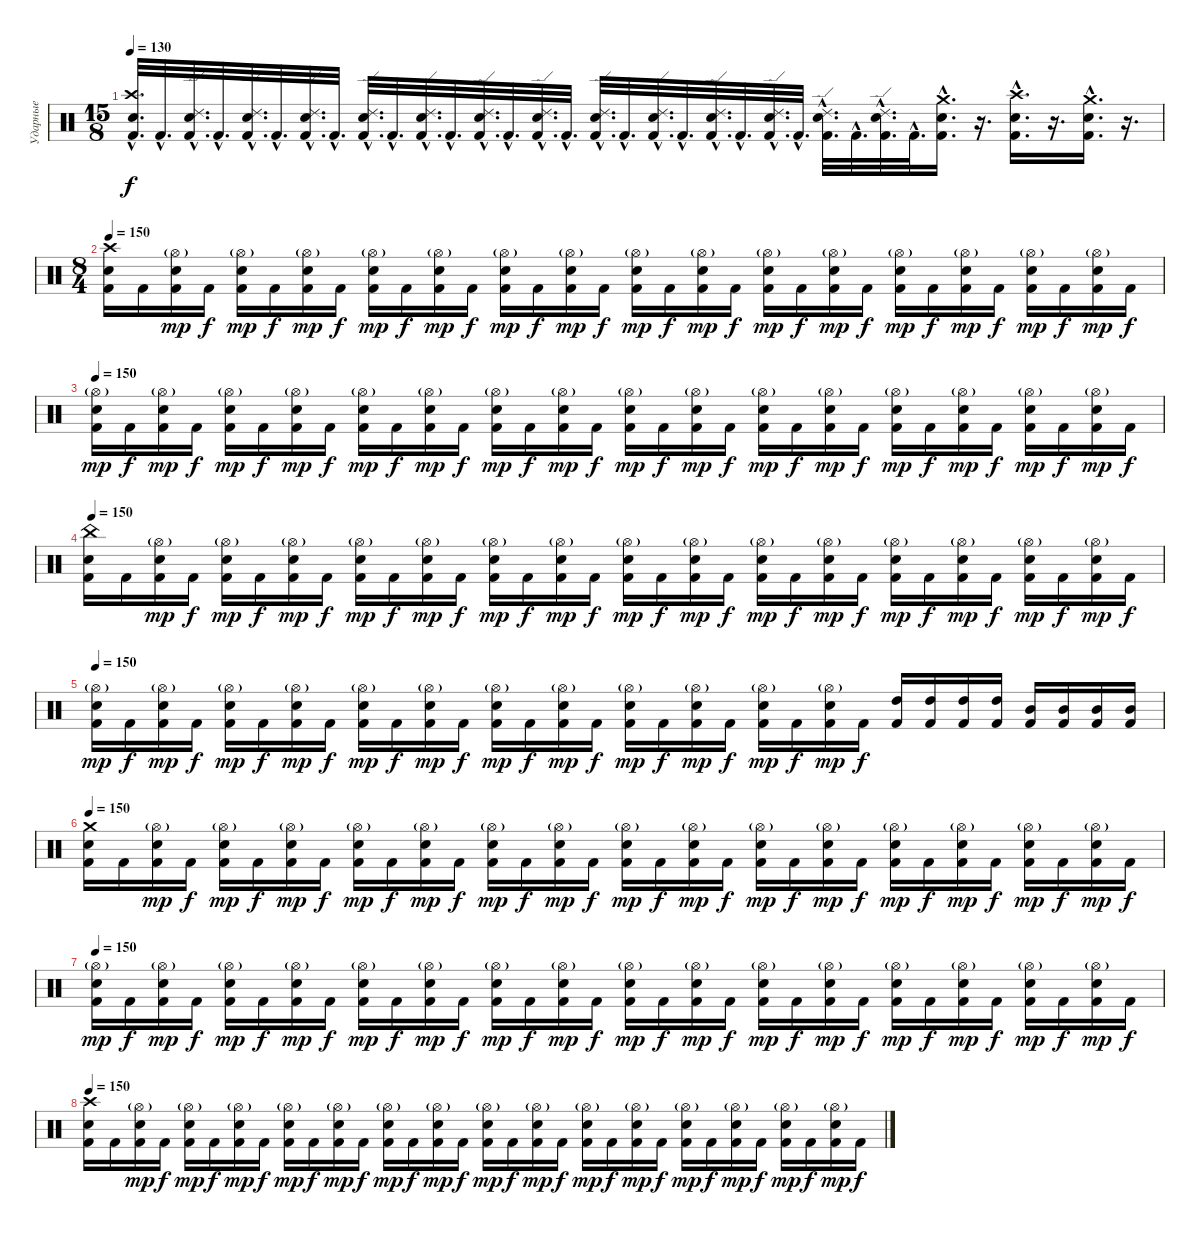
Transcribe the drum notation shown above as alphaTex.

\track ("Ударные" "Ударные") {instrument percussion}
\staff {score}
\articulation defaults
\ts (15 8)
\tempo 130
\clef neutral
\ks c
("Electric Snare (hit)"{hac} "Crash high (hit)"{hac} "Kick (hit) 2"{hac}).32{d dy f} "Kick (hit) 2"{hac}.32{d} ("Electric Snare (hit)"{hac} "Ride (edge) 2"{hac} "Kick (hit) 2"{hac}).32{d} "Kick (hit) 2"{hac}.32{d} ("Electric Snare (hit)"{hac} "Ride (edge) 2"{hac} "Kick (hit) 2"{hac}).32{d} "Kick (hit) 2"{hac}.32{d} ("Electric Snare (hit)"{hac} "Ride (edge) 2"{hac} "Kick (hit) 2"{hac}).32{d} "Kick (hit) 2"{hac}.32{d} ("Electric Snare (hit)"{hac} "Ride (edge) 2"{hac} "Kick (hit) 2"{hac}).32{d} "Kick (hit) 2"{hac}.32{d} ("Electric Snare (hit)"{hac} "Ride (edge) 2"{hac} "Kick (hit) 2"{hac}).32{d} "Kick (hit) 2"{hac}.32{d} ("Electric Snare (hit)"{hac} "Ride (edge) 2"{hac} "Kick (hit) 2"{hac}).32{d} "Kick (hit) 2"{hac}.32{d} ("Electric Snare (hit)"{hac} "Ride (edge) 2"{hac} "Kick (hit) 2"{hac}).32{d} "Kick (hit) 2"{hac}.32{d} ("Electric Snare (hit)"{hac} "Ride (edge) 2"{hac} "Kick (hit) 2"{hac}).32{d} "Kick (hit) 2"{hac}.32{d} ("Electric Snare (hit)"{hac} "Ride (edge) 2"{hac} "Kick (hit) 2"{hac}).32{d} "Kick (hit) 2"{hac}.32{d} ("Electric Snare (hit)"{hac} "Ride (edge) 2"{hac} "Kick (hit) 2"{hac}).32{d} "Kick (hit) 2"{hac}.32{d} ("Electric Snare (hit)"{hac} "Ride (edge) 2"{hac} "Kick (hit) 2"{hac}).32{d} "Kick (hit) 2"{hac}.32{d} ("Electric Snare (hit)"{hac} "Ride (edge) 2"{hac} "Kick (hit) 2"{hac}).32{d} "Kick (hit) 2"{hac}.32{d} ("Electric Snare (hit)"{hac} "Ride (edge) 2"{hac} "Kick (hit) 2"{hac}).32{d} "Kick (hit) 2"{hac}.32{d} ("Electric Snare (hit)"{hac} "Crash medium (hit)"{hac} "Kick (hit) 2"{hac}).16{d} r.16{d} ("Electric Snare (hit)"{hac} "Crash high (hit)"{hac} "Kick (hit) 2"{hac}).16{d} r.16{d} ("Electric Snare (hit)"{hac} "Crash medium (hit)"{hac} "Kick (hit) 2"{hac}).16{d} r.16{d} |
\ts (8 4)
\tempo 150
("Crash high (hit)" "Electric Snare (hit)" "Kick (hit) 2").16 "Kick (hit) 2".16 ("Hi-Hat (open)"{g} "Electric Snare (hit)" "Kick (hit) 2").16{dy mp} "Kick (hit) 2".16{dy f} ("Hi-Hat (open)"{g} "Electric Snare (hit)" "Kick (hit) 2").16{dy mp} "Kick (hit) 2".16{dy f} ("Hi-Hat (open)"{g} "Electric Snare (hit)" "Kick (hit) 2").16{dy mp} "Kick (hit) 2".16{dy f} ("Hi-Hat (open)"{g} "Electric Snare (hit)" "Kick (hit) 2").16{dy mp} "Kick (hit) 2".16{dy f} ("Hi-Hat (open)"{g} "Electric Snare (hit)" "Kick (hit) 2").16{dy mp} "Kick (hit) 2".16{dy f} ("Hi-Hat (open)"{g} "Electric Snare (hit)" "Kick (hit) 2").16{dy mp} "Kick (hit) 2".16{dy f} ("Hi-Hat (open)"{g} "Electric Snare (hit)" "Kick (hit) 2").16{dy mp} "Kick (hit) 2".16{dy f} ("Hi-Hat (open)"{g} "Electric Snare (hit)" "Kick (hit) 2").16{dy mp} "Kick (hit) 2".16{dy f} ("Hi-Hat (open)"{g} "Electric Snare (hit)" "Kick (hit) 2").16{dy mp} "Kick (hit) 2".16{dy f} ("Hi-Hat (open)"{g} "Electric Snare (hit)" "Kick (hit) 2").16{dy mp} "Kick (hit) 2".16{dy f} ("Hi-Hat (open)"{g} "Electric Snare (hit)" "Kick (hit) 2").16{dy mp} "Kick (hit) 2".16{dy f} ("Hi-Hat (open)"{g} "Electric Snare (hit)" "Kick (hit) 2").16{dy mp} "Kick (hit) 2".16{dy f} ("Hi-Hat (open)"{g} "Electric Snare (hit)" "Kick (hit) 2").16{dy mp} "Kick (hit) 2".16{dy f} ("Hi-Hat (open)"{g} "Electric Snare (hit)" "Kick (hit) 2").16{dy mp} "Kick (hit) 2".16{dy f} ("Hi-Hat (open)"{g} "Electric Snare (hit)" "Kick (hit) 2").16{dy mp} "Kick (hit) 2".16{dy f} |
\tempo 150
("Hi-Hat (open)"{g} "Electric Snare (hit)" "Kick (hit) 2").16{dy mp} "Kick (hit) 2".16{dy f} ("Hi-Hat (open)"{g} "Electric Snare (hit)" "Kick (hit) 2").16{dy mp} "Kick (hit) 2".16{dy f} ("Hi-Hat (open)"{g} "Electric Snare (hit)" "Kick (hit) 2").16{dy mp} "Kick (hit) 2".16{dy f} ("Hi-Hat (open)"{g} "Electric Snare (hit)" "Kick (hit) 2").16{dy mp} "Kick (hit) 2".16{dy f} ("Hi-Hat (open)"{g} "Electric Snare (hit)" "Kick (hit) 2").16{dy mp} "Kick (hit) 2".16{dy f} ("Hi-Hat (open)"{g} "Electric Snare (hit)" "Kick (hit) 2").16{dy mp} "Kick (hit) 2".16{dy f} ("Hi-Hat (open)"{g} "Electric Snare (hit)" "Kick (hit) 2").16{dy mp} "Kick (hit) 2".16{dy f} ("Hi-Hat (open)"{g} "Electric Snare (hit)" "Kick (hit) 2").16{dy mp} "Kick (hit) 2".16{dy f} ("Hi-Hat (open)"{g} "Electric Snare (hit)" "Kick (hit) 2").16{dy mp} "Kick (hit) 2".16{dy f} ("Hi-Hat (open)"{g} "Electric Snare (hit)" "Kick (hit) 2").16{dy mp} "Kick (hit) 2".16{dy f} ("Hi-Hat (open)"{g} "Electric Snare (hit)" "Kick (hit) 2").16{dy mp} "Kick (hit) 2".16{dy f} ("Hi-Hat (open)"{g} "Electric Snare (hit)" "Kick (hit) 2").16{dy mp} "Kick (hit) 2".16{dy f} ("Hi-Hat (open)"{g} "Electric Snare (hit)" "Kick (hit) 2").16{dy mp} "Kick (hit) 2".16{dy f} ("Hi-Hat (open)"{g} "Electric Snare (hit)" "Kick (hit) 2").16{dy mp} "Kick (hit) 2".16{dy f} ("Hi-Hat (open)"{g} "Electric Snare (hit)" "Kick (hit) 2").16{dy mp} "Kick (hit) 2".16{dy f} ("Hi-Hat (open)"{g} "Electric Snare (hit)" "Kick (hit) 2").16{dy mp} "Kick (hit) 2".16{dy f} |
\tempo 150
("China (hit)" "Electric Snare (hit)" "Kick (hit) 2").16 "Kick (hit) 2".16 ("Hi-Hat (open)"{g} "Electric Snare (hit)" "Kick (hit) 2").16{dy mp} "Kick (hit) 2".16{dy f} ("Hi-Hat (open)"{g} "Electric Snare (hit)" "Kick (hit) 2").16{dy mp} "Kick (hit) 2".16{dy f} ("Hi-Hat (open)"{g} "Electric Snare (hit)" "Kick (hit) 2").16{dy mp} "Kick (hit) 2".16{dy f} ("Hi-Hat (open)"{g} "Electric Snare (hit)" "Kick (hit) 2").16{dy mp} "Kick (hit) 2".16{dy f} ("Hi-Hat (open)"{g} "Electric Snare (hit)" "Kick (hit) 2").16{dy mp} "Kick (hit) 2".16{dy f} ("Hi-Hat (open)"{g} "Electric Snare (hit)" "Kick (hit) 2").16{dy mp} "Kick (hit) 2".16{dy f} ("Hi-Hat (open)"{g} "Electric Snare (hit)" "Kick (hit) 2").16{dy mp} "Kick (hit) 2".16{dy f} ("Hi-Hat (open)"{g} "Electric Snare (hit)" "Kick (hit) 2").16{dy mp} "Kick (hit) 2".16{dy f} ("Hi-Hat (open)"{g} "Electric Snare (hit)" "Kick (hit) 2").16{dy mp} "Kick (hit) 2".16{dy f} ("Hi-Hat (open)"{g} "Electric Snare (hit)" "Kick (hit) 2").16{dy mp} "Kick (hit) 2".16{dy f} ("Hi-Hat (open)"{g} "Electric Snare (hit)" "Kick (hit) 2").16{dy mp} "Kick (hit) 2".16{dy f} ("Hi-Hat (open)"{g} "Electric Snare (hit)" "Kick (hit) 2").16{dy mp} "Kick (hit) 2".16{dy f} ("Hi-Hat (open)"{g} "Electric Snare (hit)" "Kick (hit) 2").16{dy mp} "Kick (hit) 2".16{dy f} ("Hi-Hat (open)"{g} "Electric Snare (hit)" "Kick (hit) 2").16{dy mp} "Kick (hit) 2".16{dy f} ("Hi-Hat (open)"{g} "Electric Snare (hit)" "Kick (hit) 2").16{dy mp} "Kick (hit) 2".16{dy f} |
\tempo 150
("Hi-Hat (open)"{g} "Electric Snare (hit)" "Kick (hit) 2").16{dy mp} "Kick (hit) 2".16{dy f} ("Hi-Hat (open)"{g} "Electric Snare (hit)" "Kick (hit) 2").16{dy mp} "Kick (hit) 2".16{dy f} ("Hi-Hat (open)"{g} "Electric Snare (hit)" "Kick (hit) 2").16{dy mp} "Kick (hit) 2".16{dy f} ("Hi-Hat (open)"{g} "Electric Snare (hit)" "Kick (hit) 2").16{dy mp} "Kick (hit) 2".16{dy f} ("Hi-Hat (open)"{g} "Electric Snare (hit)" "Kick (hit) 2").16{dy mp} "Kick (hit) 2".16{dy f} ("Hi-Hat (open)"{g} "Electric Snare (hit)" "Kick (hit) 2").16{dy mp} "Kick (hit) 2".16{dy f} ("Hi-Hat (open)"{g} "Electric Snare (hit)" "Kick (hit) 2").16{dy mp} "Kick (hit) 2".16{dy f} ("Hi-Hat (open)"{g} "Electric Snare (hit)" "Kick (hit) 2").16{dy mp} "Kick (hit) 2".16{dy f} ("Hi-Hat (open)"{g} "Electric Snare (hit)" "Kick (hit) 2").16{dy mp} "Kick (hit) 2".16{dy f} ("Hi-Hat (open)"{g} "Electric Snare (hit)" "Kick (hit) 2").16{dy mp} "Kick (hit) 2".16{dy f} ("Hi-Hat (open)"{g} "Electric Snare (hit)" "Kick (hit) 2").16{dy mp} "Kick (hit) 2".16{dy f} ("Hi-Hat (open)"{g} "Electric Snare (hit)" "Kick (hit) 2").16{dy mp} "Kick (hit) 2".16{dy f} ("High Tom (hit)" "Kick (hit) 2").16 ("High Tom (hit)" "Kick (hit) 2").16 ("High Tom (hit)" "Kick (hit) 2").16 ("High Tom (hit)" "Kick (hit) 2").16 ("Mid Tom (hit)" "Kick (hit) 2").16 ("Mid Tom (hit)" "Kick (hit) 2").16 ("Mid Tom (hit)" "Kick (hit) 2").16 ("Mid Tom (hit)" "Kick (hit) 2").16 |
\tempo 150
("Crash medium (hit)" "Electric Snare (hit)" "Kick (hit) 2").16 "Kick (hit) 2".16 ("Hi-Hat (open)"{g} "Electric Snare (hit)" "Kick (hit) 2").16{dy mp} "Kick (hit) 2".16{dy f} ("Hi-Hat (open)"{g} "Electric Snare (hit)" "Kick (hit) 2").16{dy mp} "Kick (hit) 2".16{dy f} ("Hi-Hat (open)"{g} "Electric Snare (hit)" "Kick (hit) 2").16{dy mp} "Kick (hit) 2".16{dy f} ("Hi-Hat (open)"{g} "Electric Snare (hit)" "Kick (hit) 2").16{dy mp} "Kick (hit) 2".16{dy f} ("Hi-Hat (open)"{g} "Electric Snare (hit)" "Kick (hit) 2").16{dy mp} "Kick (hit) 2".16{dy f} ("Hi-Hat (open)"{g} "Electric Snare (hit)" "Kick (hit) 2").16{dy mp} "Kick (hit) 2".16{dy f} ("Hi-Hat (open)"{g} "Electric Snare (hit)" "Kick (hit) 2").16{dy mp} "Kick (hit) 2".16{dy f} ("Hi-Hat (open)"{g} "Electric Snare (hit)" "Kick (hit) 2").16{dy mp} "Kick (hit) 2".16{dy f} ("Hi-Hat (open)"{g} "Electric Snare (hit)" "Kick (hit) 2").16{dy mp} "Kick (hit) 2".16{dy f} ("Hi-Hat (open)"{g} "Electric Snare (hit)" "Kick (hit) 2").16{dy mp} "Kick (hit) 2".16{dy f} ("Hi-Hat (open)"{g} "Electric Snare (hit)" "Kick (hit) 2").16{dy mp} "Kick (hit) 2".16{dy f} ("Hi-Hat (open)"{g} "Electric Snare (hit)" "Kick (hit) 2").16{dy mp} "Kick (hit) 2".16{dy f} ("Hi-Hat (open)"{g} "Electric Snare (hit)" "Kick (hit) 2").16{dy mp} "Kick (hit) 2".16{dy f} ("Hi-Hat (open)"{g} "Electric Snare (hit)" "Kick (hit) 2").16{dy mp} "Kick (hit) 2".16{dy f} ("Hi-Hat (open)"{g} "Electric Snare (hit)" "Kick (hit) 2").16{dy mp} "Kick (hit) 2".16{dy f} |
\tempo 150
("Hi-Hat (open)"{g} "Electric Snare (hit)" "Kick (hit) 2").16{dy mp} "Kick (hit) 2".16{dy f} ("Hi-Hat (open)"{g} "Electric Snare (hit)" "Kick (hit) 2").16{dy mp} "Kick (hit) 2".16{dy f} ("Hi-Hat (open)"{g} "Electric Snare (hit)" "Kick (hit) 2").16{dy mp} "Kick (hit) 2".16{dy f} ("Hi-Hat (open)"{g} "Electric Snare (hit)" "Kick (hit) 2").16{dy mp} "Kick (hit) 2".16{dy f} ("Hi-Hat (open)"{g} "Electric Snare (hit)" "Kick (hit) 2").16{dy mp} "Kick (hit) 2".16{dy f} ("Hi-Hat (open)"{g} "Electric Snare (hit)" "Kick (hit) 2").16{dy mp} "Kick (hit) 2".16{dy f} ("Hi-Hat (open)"{g} "Electric Snare (hit)" "Kick (hit) 2").16{dy mp} "Kick (hit) 2".16{dy f} ("Hi-Hat (open)"{g} "Electric Snare (hit)" "Kick (hit) 2").16{dy mp} "Kick (hit) 2".16{dy f} ("Hi-Hat (open)"{g} "Electric Snare (hit)" "Kick (hit) 2").16{dy mp} "Kick (hit) 2".16{dy f} ("Hi-Hat (open)"{g} "Electric Snare (hit)" "Kick (hit) 2").16{dy mp} "Kick (hit) 2".16{dy f} ("Hi-Hat (open)"{g} "Electric Snare (hit)" "Kick (hit) 2").16{dy mp} "Kick (hit) 2".16{dy f} ("Hi-Hat (open)"{g} "Electric Snare (hit)" "Kick (hit) 2").16{dy mp} "Kick (hit) 2".16{dy f} ("Hi-Hat (open)"{g} "Electric Snare (hit)" "Kick (hit) 2").16{dy mp} "Kick (hit) 2".16{dy f} ("Hi-Hat (open)"{g} "Electric Snare (hit)" "Kick (hit) 2").16{dy mp} "Kick (hit) 2".16{dy f} ("Hi-Hat (open)"{g} "Electric Snare (hit)" "Kick (hit) 2").16{dy mp} "Kick (hit) 2".16{dy f} ("Hi-Hat (open)"{g} "Electric Snare (hit)" "Kick (hit) 2").16{dy mp} "Kick (hit) 2".16{dy f} |
\tempo 150
("Crash high (hit)" "Electric Snare (hit)" "Kick (hit) 2").16 "Kick (hit) 2".16 ("Hi-Hat (open)"{g} "Electric Snare (hit)" "Kick (hit) 2").16{dy mp} "Kick (hit) 2".16{dy f} ("Hi-Hat (open)"{g} "Electric Snare (hit)" "Kick (hit) 2").16{dy mp} "Kick (hit) 2".16{dy f} ("Hi-Hat (open)"{g} "Electric Snare (hit)" "Kick (hit) 2").16{dy mp} "Kick (hit) 2".16{dy f} ("Hi-Hat (open)"{g} "Electric Snare (hit)" "Kick (hit) 2").16{dy mp} "Kick (hit) 2".16{dy f} ("Hi-Hat (open)"{g} "Electric Snare (hit)" "Kick (hit) 2").16{dy mp} "Kick (hit) 2".16{dy f} ("Hi-Hat (open)"{g} "Electric Snare (hit)" "Kick (hit) 2").16{dy mp} "Kick (hit) 2".16{dy f} ("Hi-Hat (open)"{g} "Electric Snare (hit)" "Kick (hit) 2").16{dy mp} "Kick (hit) 2".16{dy f} ("Hi-Hat (open)"{g} "Electric Snare (hit)" "Kick (hit) 2").16{dy mp} "Kick (hit) 2".16{dy f} ("Hi-Hat (open)"{g} "Electric Snare (hit)" "Kick (hit) 2").16{dy mp} "Kick (hit) 2".16{dy f} ("Hi-Hat (open)"{g} "Electric Snare (hit)" "Kick (hit) 2").16{dy mp} "Kick (hit) 2".16{dy f} ("Hi-Hat (open)"{g} "Electric Snare (hit)" "Kick (hit) 2").16{dy mp} "Kick (hit) 2".16{dy f} ("Hi-Hat (open)"{g} "Electric Snare (hit)" "Kick (hit) 2").16{dy mp} "Kick (hit) 2".16{dy f} ("Hi-Hat (open)"{g} "Electric Snare (hit)" "Kick (hit) 2").16{dy mp} "Kick (hit) 2".16{dy f} ("Hi-Hat (open)"{g} "Electric Snare (hit)" "Kick (hit) 2").16{dy mp} "Kick (hit) 2".16{dy f} ("Hi-Hat (open)"{g} "Electric Snare (hit)" "Kick (hit) 2").16{dy mp} "Kick (hit) 2".16{dy f}
